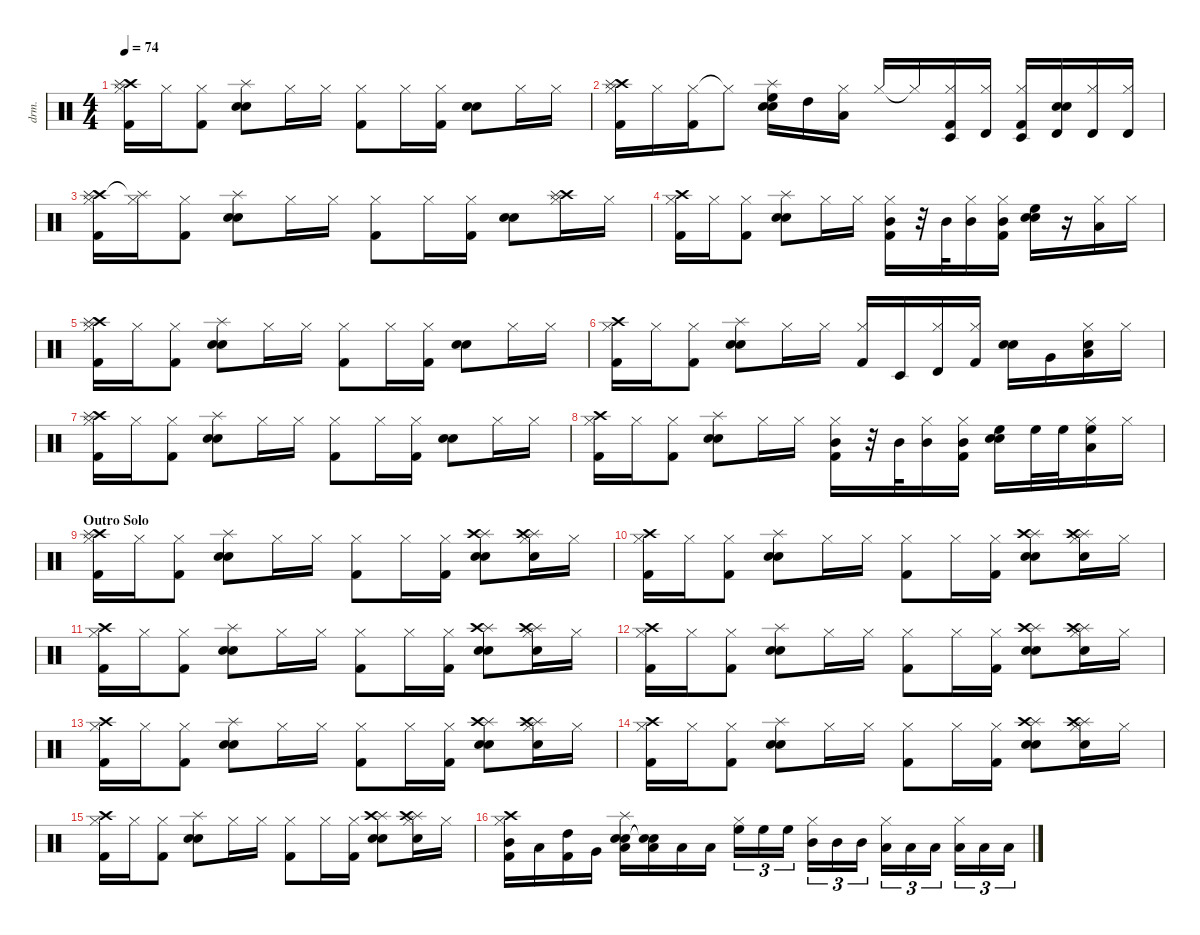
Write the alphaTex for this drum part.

\defaultSystemsLayout 4
\hideDynamics
\bracketExtendMode nobrackets
\otherSystemsTrackNameOrientation horizontal
\track ("Percussion" "drm.") {instrument percussion}
\staff {score}
\articulation defaults
\ts (4 4)
\tempo 74
\clef neutral
\ks c
("Hi-Hat (closed)" "Crash high (hit)" "Kick (hit) 2" "Splash (hit)").16{dy f} "Hi-Hat (closed)".16 ("Hi-Hat (closed)" "Kick (hit) 2").8 ("Snare (hit) 2" "Snare (hit) 2" "Splash (hit)").8 "Hi-Hat (closed)".16 "Hi-Hat (closed)".16 ("Hi-Hat (closed)" "Kick (hit) 2").8 "Hi-Hat (closed)".16 ("Hi-Hat (closed)" "Kick (hit) 2").16 ("Snare (hit) 2" "Snare (hit) 2").8 "Hi-Hat (closed)".16 "Hi-Hat (closed)".16 |
("Hi-Hat (closed)" "Crash high (hit)" "Kick (hit) 2" "Splash (hit)").16 "Hi-Hat (closed)".16 ("Hi-Hat (closed)" "Kick (hit) 2").16 "Hi-Hat (closed)"{t}.8 ("Snare (hit) 2" "Snare (hit) 2" "Splash (hit)" "High Floor Tom (hit)").16 "High Tom (hit)".16{dy fff} ("Hi-Hat (closed)" "Low Tom (hit)").16{dy f} "Hi-Hat (closed)".16 "Hi-Hat (closed)"{t}.16 ("Hi-Hat (closed)" "Kick (hit) 2" "Timbale low (hit)").16 ("Hi-Hat (closed)" "Timbale high (hit)").16 ("Hi-Hat (closed)" "Kick (hit) 2" "Timbale low (hit)").16 ("Snare (hit) 2" "Snare (hit) 2" "Timbale high (hit)").16 ("Hi-Hat (closed)" "Timbale high (hit)").16 ("Hi-Hat (closed)" "Timbale high (hit)").16 |
("Hi-Hat (closed)" "Crash high (hit)" "Kick (hit) 2" "Splash (hit)").16 ("Hi-Hat (closed)" "Splash (hit)"{t}).16 ("Hi-Hat (closed)" "Kick (hit) 2").8 ("Snare (hit) 2" "Snare (hit) 2" "Splash (hit)").8 "Hi-Hat (closed)".16 "Hi-Hat (closed)".16 ("Hi-Hat (closed)" "Kick (hit) 2").8 "Hi-Hat (closed)".16 ("Hi-Hat (closed)" "Kick (hit) 2").16 ("Snare (hit) 2" "Snare (hit) 2").8 ("Hi-Hat (closed)" "Crash high (hit)" "Splash (hit)").16 "Hi-Hat (closed)".16 |
("Hi-Hat (closed)" "Crash high (hit)" "Kick (hit) 2").16 "Hi-Hat (closed)".16 ("Hi-Hat (closed)" "Kick (hit) 2").8 ("Snare (hit) 2" "Snare (hit) 2" "Splash (hit)").8 "Hi-Hat (closed)".16 "Hi-Hat (closed)".16 ("Hi-Hat (closed)" "Kick (hit) 2" "Mid Tom (hit)").16 r.32 "Mid Tom (hit)".32 ("Hi-Hat (closed)" "Mid Tom (hit)").16 ("Hi-Hat (closed)" "Kick (hit) 2" "Mid Tom (hit)").16 ("Snare (hit) 2" "Snare (hit) 2" "High Floor Tom (hit)").16 r.16 ("Hi-Hat (closed)" "Low Floor Tom (hit)").16 "Hi-Hat (closed)".16 |
("Hi-Hat (closed)" "Crash high (hit)" "Kick (hit) 2" "Splash (hit)").16 "Hi-Hat (closed)".16 ("Hi-Hat (closed)" "Kick (hit) 2").8 ("Snare (hit) 2" "Snare (hit) 2" "Splash (hit)").8 "Hi-Hat (closed)".16 "Hi-Hat (closed)".16 ("Hi-Hat (closed)" "Kick (hit) 2").8 "Hi-Hat (closed)".16 ("Hi-Hat (closed)" "Kick (hit) 2").16 ("Snare (hit) 2" "Snare (hit) 2").8 "Hi-Hat (closed)".16 "Hi-Hat (closed)".16 |
("Hi-Hat (closed)" "Crash high (hit)" "Kick (hit) 2").16 "Hi-Hat (closed)".16 ("Hi-Hat (closed)" "Kick (hit) 2").8 ("Snare (hit) 2" "Snare (hit) 2" "Splash (hit)").8 "Hi-Hat (closed)".16 "Hi-Hat (closed)".16 ("Hi-Hat (closed)" "Kick (hit) 2").16 "Timbale low (hit)".16{dy fff} ("Hi-Hat (closed)" "Timbale high (hit)").16{dy f} ("Hi-Hat (closed)" "Kick (hit) 2").16 ("Snare (hit) 2" "Snare (hit) 2").16 "Very Low Tom (hit)".16{dy fff} ("Hi-Hat (closed)" "Low Floor Tom (hit)" "Snare (hit) 2").16{dy f} "Hi-Hat (closed)".16 |
("Hi-Hat (closed)" "Crash high (hit)" "Kick (hit) 2" "Splash (hit)").16 "Hi-Hat (closed)".16 ("Hi-Hat (closed)" "Kick (hit) 2").8 ("Snare (hit) 2" "Snare (hit) 2" "Splash (hit)").8 "Hi-Hat (closed)".16 "Hi-Hat (closed)".16 ("Hi-Hat (closed)" "Kick (hit) 2").8 "Hi-Hat (closed)".16 ("Hi-Hat (closed)" "Kick (hit) 2").16 ("Snare (hit) 2" "Snare (hit) 2").8 "Hi-Hat (closed)".16 "Hi-Hat (closed)".16 |
("Hi-Hat (closed)" "Crash high (hit)" "Kick (hit) 2").16 "Hi-Hat (closed)".16 ("Hi-Hat (closed)" "Kick (hit) 2").8 ("Snare (hit) 2" "Snare (hit) 2" "Splash (hit)").8 "Hi-Hat (closed)".16 "Hi-Hat (closed)".16 ("Hi-Hat (closed)" "Kick (hit) 2" "Mid Tom (hit)").16 r.32 "Mid Tom (hit)".32 ("Hi-Hat (closed)" "Mid Tom (hit)").16 ("Hi-Hat (closed)" "Kick (hit) 2" "Mid Tom (hit)").16 ("Snare (hit) 2" "Snare (hit) 2" "High Floor Tom (hit)").16 "High Floor Tom (hit)".32 "High Floor Tom (hit)".32 ("Hi-Hat (closed)" "High Floor Tom (hit)" "Low Floor Tom (hit)").16 "Hi-Hat (closed)".16 |
\section ("" "Outro Solo")
("Hi-Hat (closed)" "Crash high (hit)" "Kick (hit) 2" "Splash (hit)").16 "Hi-Hat (closed)".16 ("Hi-Hat (closed)" "Kick (hit) 2").8 ("Snare (hit) 2" "Snare (hit) 2" "Splash (hit)").8 "Hi-Hat (closed)".16 "Hi-Hat (closed)".16 ("Hi-Hat (closed)" "Kick (hit) 2").8 "Hi-Hat (closed)".16 ("Hi-Hat (closed)" "Kick (hit) 2").16 ("Snare (hit) 2" "Snare (hit) 2" "Splash (hit)" "Crash high (hit)").8 ("Hi-Hat (closed)" "Snare (hit) 2" "Splash (hit)" "Crash high (hit)").16 "Hi-Hat (closed)".16 |
("Hi-Hat (closed)" "Crash high (hit)" "Kick (hit) 2").16 "Hi-Hat (closed)".16 ("Hi-Hat (closed)" "Kick (hit) 2").8 ("Snare (hit) 2" "Snare (hit) 2" "Splash (hit)").8 "Hi-Hat (closed)".16 "Hi-Hat (closed)".16 ("Hi-Hat (closed)" "Kick (hit) 2").8 "Hi-Hat (closed)".16 ("Hi-Hat (closed)" "Kick (hit) 2").16 ("Snare (hit) 2" "Snare (hit) 2" "Splash (hit)" "Crash high (hit)").8 ("Hi-Hat (closed)" "Snare (hit) 2" "Splash (hit)" "Crash high (hit)").16 "Hi-Hat (closed)".16 |
("Hi-Hat (closed)" "Crash high (hit)" "Kick (hit) 2").16 "Hi-Hat (closed)".16 ("Hi-Hat (closed)" "Kick (hit) 2").8 ("Snare (hit) 2" "Snare (hit) 2" "Splash (hit)").8 "Hi-Hat (closed)".16 "Hi-Hat (closed)".16 ("Hi-Hat (closed)" "Kick (hit) 2").8 "Hi-Hat (closed)".16 ("Hi-Hat (closed)" "Kick (hit) 2").16 ("Snare (hit) 2" "Snare (hit) 2" "Splash (hit)" "Crash high (hit)").8 ("Hi-Hat (closed)" "Snare (hit) 2" "Splash (hit)" "Crash high (hit)").16 "Hi-Hat (closed)".16 |
("Hi-Hat (closed)" "Crash high (hit)" "Kick (hit) 2").16 "Hi-Hat (closed)".16 ("Hi-Hat (closed)" "Kick (hit) 2").8 ("Snare (hit) 2" "Snare (hit) 2" "Splash (hit)").8 "Hi-Hat (closed)".16 "Hi-Hat (closed)".16 ("Hi-Hat (closed)" "Kick (hit) 2").8 "Hi-Hat (closed)".16 ("Hi-Hat (closed)" "Kick (hit) 2").16 ("Snare (hit) 2" "Snare (hit) 2" "Splash (hit)" "Crash high (hit)").8 ("Hi-Hat (closed)" "Snare (hit) 2" "Splash (hit)" "Crash high (hit)").16 "Hi-Hat (closed)".16 |
("Hi-Hat (closed)" "Crash high (hit)" "Kick (hit) 2").16 "Hi-Hat (closed)".16 ("Hi-Hat (closed)" "Kick (hit) 2").8 ("Snare (hit) 2" "Snare (hit) 2" "Splash (hit)").8 "Hi-Hat (closed)".16 "Hi-Hat (closed)".16 ("Hi-Hat (closed)" "Kick (hit) 2").8 "Hi-Hat (closed)".16 ("Hi-Hat (closed)" "Kick (hit) 2").16 ("Snare (hit) 2" "Snare (hit) 2" "Splash (hit)" "Crash high (hit)").8 ("Hi-Hat (closed)" "Snare (hit) 2" "Splash (hit)" "Crash high (hit)").16 "Hi-Hat (closed)".16 |
("Hi-Hat (closed)" "Crash high (hit)" "Kick (hit) 2").16 "Hi-Hat (closed)".16 ("Hi-Hat (closed)" "Kick (hit) 2").8 ("Snare (hit) 2" "Snare (hit) 2" "Splash (hit)").8 "Hi-Hat (closed)".16 "Hi-Hat (closed)".16 ("Hi-Hat (closed)" "Kick (hit) 2").8 "Hi-Hat (closed)".16 ("Hi-Hat (closed)" "Kick (hit) 2").16 ("Snare (hit) 2" "Snare (hit) 2" "Splash (hit)" "Crash high (hit)").8 ("Hi-Hat (closed)" "Snare (hit) 2" "Splash (hit)" "Crash high (hit)").16 "Hi-Hat (closed)".16 |
("Hi-Hat (closed)" "Crash high (hit)" "Kick (hit) 2").16 "Hi-Hat (closed)".16 ("Hi-Hat (closed)" "Kick (hit) 2").8 ("Snare (hit) 2" "Snare (hit) 2" "Splash (hit)").8 "Hi-Hat (closed)".16 "Hi-Hat (closed)".16 ("Hi-Hat (closed)" "Kick (hit) 2").8 "Hi-Hat (closed)".16 ("Hi-Hat (closed)" "Kick (hit) 2").16 ("Snare (hit) 2" "Snare (hit) 2" "Splash (hit)" "Crash high (hit)").8 ("Hi-Hat (closed)" "Snare (hit) 2" "Splash (hit)" "Crash high (hit)").16 "Hi-Hat (closed)".16 |
("Hi-Hat (closed)" "Crash high (hit)" "Kick (hit) 2" "Mid Tom (hit)").16 "Low Tom (hit)".16 ("Kick (hit) 2" "High Tom (hit)").16 "Very Low Tom (hit)".16 ("Snare (hit) 2" "Snare (hit) 2" "Splash (hit)" "Low Floor Tom (hit)").16 ("Snare (hit) 2"{t} "Snare (hit) 2"{t} "Low Floor Tom (hit)").16 "Low Floor Tom (hit)".16 "Low Floor Tom (hit)".16 ("High Floor Tom (hit)" "Hi-Hat (closed)").16{tu (3 2)} "High Floor Tom (hit)".16{tu (3 2)} "High Floor Tom (hit)".16{tu (3 2)} ("Mid Tom (hit)" "Hi-Hat (closed)").16{tu (3 2)} "Mid Tom (hit)".16{tu (3 2)} "Mid Tom (hit)".16{tu (3 2)} ("Low Tom (hit)" "Hi-Hat (closed)").16{tu (3 2)} "Low Tom (hit)".16{tu (3 2)} "Low Tom (hit)".16{tu (3 2)} ("Low Floor Tom (hit)" "Hi-Hat (closed)").16{tu (3 2)} "Low Floor Tom (hit)".16{tu (3 2)} "Low Floor Tom (hit)".16{tu (3 2)}
